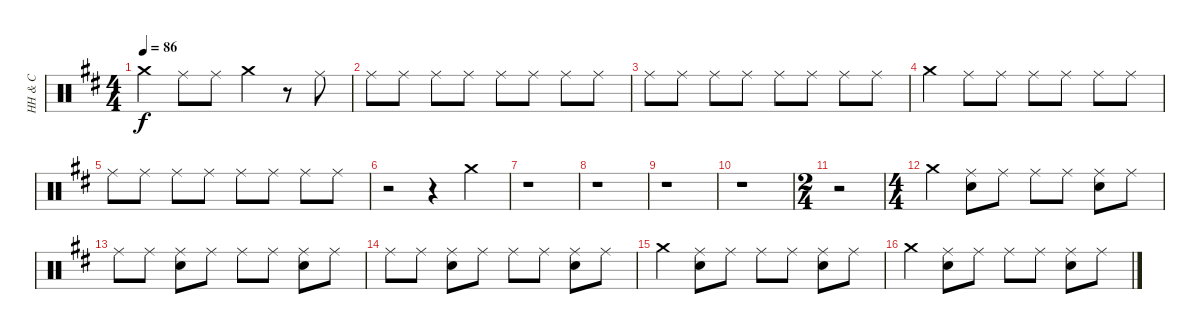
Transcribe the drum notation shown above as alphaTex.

\track ("HH & C" "HH & C") {instrument percussion}
\staff {score}
\articulation defaults
\ts (4 4)
\tempo 86
\clef neutral
\ks d "Crash medium (hit)".4{dy f} "Ride (middle)".8 "Ride (middle)".8 "Crash medium (hit)".4
r.8 "Ride (middle)".8 |
"Ride (middle)".8 "Ride (middle)".8 "Ride (middle)".8 "Ride (middle)".8 "Ride (middle)".8 "Ride (middle)".8 "Ride (middle)".8 "Ride (middle)".8 |
"Ride (middle)".8 "Ride (middle)".8 "Ride (middle)".8 "Ride (middle)".8 "Ride (middle)".8 "Ride (middle)".8 "Ride (middle)".8 "Ride (middle)".8 |
"Crash medium (hit)".4 "Ride (middle)".8 "Ride (middle)".8 "Ride (middle)".8 "Ride (middle)".8 "Ride (middle)".8 "Ride (middle)".8 |
"Ride (middle)".8 "Ride (middle)".8 "Ride (middle)".8 "Ride (middle)".8 "Ride (middle)".8 "Ride (middle)".8 "Ride (middle)".8 "Ride (middle)".8 |
r.2 r.4 "Crash medium (hit)".4 |
r.1 |
r.1 |
r.1 |
r.1 |
\ts (2 4)
r.2 |
\ts (4 4)
"Crash medium (hit)".4 ("Ride (middle)" "Hand Clap (hit)").8 "Ride (middle)".8 "Ride (middle)".8 "Ride (middle)".8 ("Ride (middle)" "Hand Clap (hit)").8 "Ride (middle)".8 |
"Ride (middle)".8 "Ride (middle)".8 ("Ride (middle)" "Hand Clap (hit)").8 "Ride (middle)".8 "Ride (middle)".8 "Ride (middle)".8 ("Ride (middle)" "Hand Clap (hit)").8 "Ride (middle)".8 |
"Ride (middle)".8 "Ride (middle)".8 ("Ride (middle)" "Hand Clap (hit)").8 "Ride (middle)".8 "Ride (middle)".8 "Ride (middle)".8 ("Ride (middle)" "Hand Clap (hit)").8 "Ride (middle)".8 |
"Crash medium (hit)".4 ("Ride (middle)" "Hand Clap (hit)").8 "Ride (middle)".8 "Ride (middle)".8 "Ride (middle)".8 ("Ride (middle)" "Hand Clap (hit)").8 "Ride (middle)".8 |
"Crash medium (hit)".4 ("Ride (middle)" "Hand Clap (hit)").8 "Ride (middle)".8 "Ride (middle)".8 "Ride (middle)".8 ("Ride (middle)" "Hand Clap (hit)").8 "Ride (middle)".8
